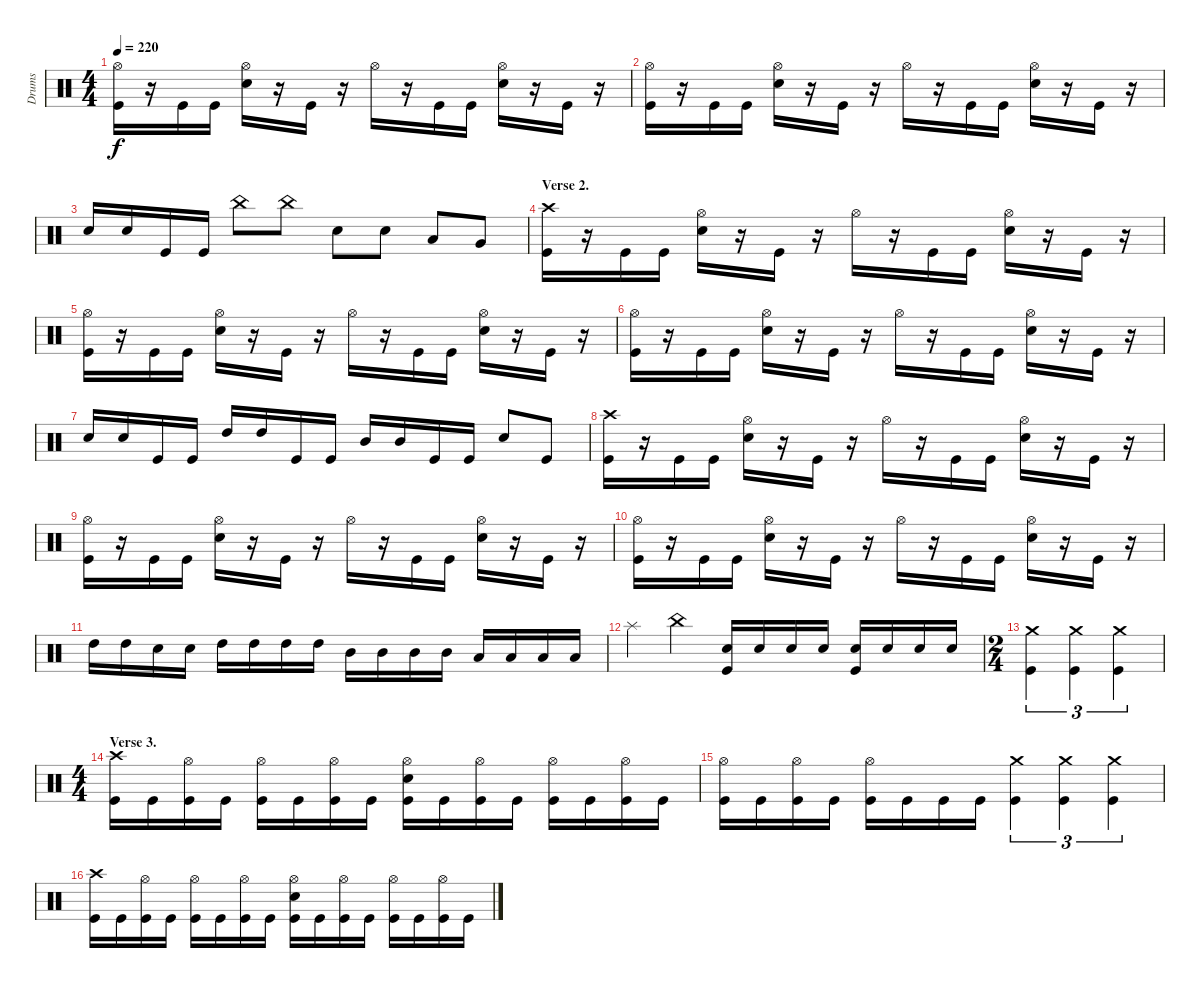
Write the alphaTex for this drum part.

\track ("Drums" "Drums") {instrument percussion}
\staff {score}
\articulation defaults
\ts (4 4)
\tempo 220
\clef neutral
\ks c
("Hi-Hat (open)" "Kick (hit)").16{dy f} r.16 "Kick (hit)".16 "Kick (hit)".16 ("Hi-Hat (open)" "Snare (hit) 2").16 r.16 "Kick (hit)".16 r.16 "Hi-Hat (open)".16 r.16 "Kick (hit)".16 "Kick (hit)".16 ("Hi-Hat (open)" "Snare (hit) 2").16 r.16 "Kick (hit)".16 r.16 |
("Hi-Hat (open)" "Kick (hit)").16 r.16 "Kick (hit)".16 "Kick (hit)".16 ("Hi-Hat (open)" "Snare (hit) 2").16 r.16 "Kick (hit)".16 r.16 "Hi-Hat (open)".16 r.16 "Kick (hit)".16 "Kick (hit)".16 ("Hi-Hat (open)" "Snare (hit) 2").16 r.16 "Kick (hit)".16 r.16 |
"Snare (hit) 2".16 "Snare (hit) 2".16 "Kick (hit)".16 "Kick (hit)".16 "China (hit)".8 "China (hit)".8 "Snare (hit) 2".8 "Snare (hit) 2".8 "Low Tom (hit)".8 "Very Low Tom (hit)".8 |
\section ("" "Verse 2.")
("Crash high (hit)" "Kick (hit)").16 r.16 "Kick (hit)".16 "Kick (hit)".16 ("Hi-Hat (open)" "Snare (hit) 2").16 r.16 "Kick (hit)".16 r.16 "Hi-Hat (open)".16 r.16 "Kick (hit)".16 "Kick (hit)".16 ("Hi-Hat (open)" "Snare (hit) 2").16 r.16 "Kick (hit)".16 r.16 |
("Hi-Hat (open)" "Kick (hit)").16 r.16 "Kick (hit)".16 "Kick (hit)".16 ("Hi-Hat (open)" "Snare (hit) 2").16 r.16 "Kick (hit)".16 r.16 "Hi-Hat (open)".16 r.16 "Kick (hit)".16 "Kick (hit)".16 ("Hi-Hat (open)" "Snare (hit) 2").16 r.16 "Kick (hit)".16 r.16 |
("Hi-Hat (open)" "Kick (hit)").16 r.16 "Kick (hit)".16 "Kick (hit)".16 ("Hi-Hat (open)" "Snare (hit) 2").16 r.16 "Kick (hit)".16 r.16 "Hi-Hat (open)".16 r.16 "Kick (hit)".16 "Kick (hit)".16 ("Hi-Hat (open)" "Snare (hit) 2").16 r.16 "Kick (hit)".16 r.16 |
"Snare (hit) 2".16 "Snare (hit) 2".16 "Kick (hit)".16 "Kick (hit)".16 "High Tom (hit)".16 "High Tom (hit)".16 "Kick (hit)".16 "Kick (hit)".16 "Mid Tom (hit)".16 "Mid Tom (hit)".16 "Kick (hit)".16 "Kick (hit)".16 "Snare (hit) 2".8 "Kick (hit)".8 |
("Crash high (hit)" "Kick (hit)").16 r.16 "Kick (hit)".16 "Kick (hit)".16 ("Hi-Hat (open)" "Snare (hit) 2").16 r.16 "Kick (hit)".16 r.16 "Hi-Hat (open)".16 r.16 "Kick (hit)".16 "Kick (hit)".16 ("Hi-Hat (open)" "Snare (hit) 2").16 r.16 "Kick (hit)".16 r.16 |
("Hi-Hat (open)" "Kick (hit)").16 r.16 "Kick (hit)".16 "Kick (hit)".16 ("Hi-Hat (open)" "Snare (hit) 2").16 r.16 "Kick (hit)".16 r.16 "Hi-Hat (open)".16 r.16 "Kick (hit)".16 "Kick (hit)".16 ("Hi-Hat (open)" "Snare (hit) 2").16 r.16 "Kick (hit)".16 r.16 |
("Hi-Hat (open)" "Kick (hit)").16 r.16 "Kick (hit)".16 "Kick (hit)".16 ("Hi-Hat (open)" "Snare (hit) 2").16 r.16 "Kick (hit)".16 r.16 "Hi-Hat (open)".16 r.16 "Kick (hit)".16 "Kick (hit)".16 ("Hi-Hat (open)" "Snare (hit) 2").16 r.16 "Kick (hit)".16 r.16 |
"High Tom (hit)".16 "High Tom (hit)".16 "Snare (hit) 2".16 "Snare (hit) 2".16 "High Tom (hit)".16 "High Tom (hit)".16 "High Tom (hit)".16 "High Tom (hit)".16 "Mid Tom (hit)".16 "Mid Tom (hit)".16 "Mid Tom (hit)".16 "Mid Tom (hit)".16 "Low Tom (hit)".16 "Low Tom (hit)".16 "Low Tom (hit)".16 "Low Tom (hit)".16 |
"Splash (hit)".4 "China (hit)".4 ("Snare (hit) 2" "Kick (hit)").16 "Snare (hit) 2".16 "Snare (hit) 2".16 "Snare (hit) 2".16 ("Snare (hit) 2" "Kick (hit)").16 "Snare (hit) 2".16 "Snare (hit) 2".16 "Snare (hit) 2".16 |
\ts (2 4)
("Crash medium (hit)" "Kick (hit)").4{tu (3 2)} ("Crash medium (hit)" "Kick (hit)").4{tu (3 2)} ("Crash medium (hit)" "Kick (hit)").4{tu (3 2)} |
\ts (4 4)
\section ("" "Verse 3.")
("Crash high (hit)" "Kick (hit)").16 "Kick (hit)".16 ("Hi-Hat (open)" "Kick (hit)").16 "Kick (hit)".16 ("Hi-Hat (open)" "Kick (hit)").16 "Kick (hit)".16 ("Hi-Hat (open)" "Kick (hit)").16 "Kick (hit)".16 ("Hi-Hat (open)" "Snare (hit) 2" "Kick (hit)").16 "Kick (hit)".16 ("Hi-Hat (open)" "Kick (hit)").16 "Kick (hit)".16 ("Hi-Hat (open)" "Kick (hit)").16 "Kick (hit)".16 ("Hi-Hat (open)" "Kick (hit)").16 "Kick (hit)".16 |
("Hi-Hat (open)" "Kick (hit)").16 "Kick (hit)".16 ("Hi-Hat (open)" "Kick (hit)").16 "Kick (hit)".16 ("Hi-Hat (open)" "Kick (hit)").16 "Kick (hit)".16 "Kick (hit)".16 "Kick (hit)".16 ("Crash medium (hit)" "Kick (hit)").4{tu (3 2)} ("Crash medium (hit)" "Kick (hit)").4{tu (3 2)} ("Crash medium (hit)" "Kick (hit)").4{tu (3 2)} |
("Crash high (hit)" "Kick (hit)").16 "Kick (hit)".16 ("Hi-Hat (open)" "Kick (hit)").16 "Kick (hit)".16 ("Hi-Hat (open)" "Kick (hit)").16 "Kick (hit)".16 ("Hi-Hat (open)" "Kick (hit)").16 "Kick (hit)".16 ("Hi-Hat (open)" "Snare (hit) 2" "Kick (hit)").16 "Kick (hit)".16 ("Hi-Hat (open)" "Kick (hit)").16 "Kick (hit)".16 ("Hi-Hat (open)" "Kick (hit)").16 "Kick (hit)".16 ("Hi-Hat (open)" "Kick (hit)").16 "Kick (hit)".16
